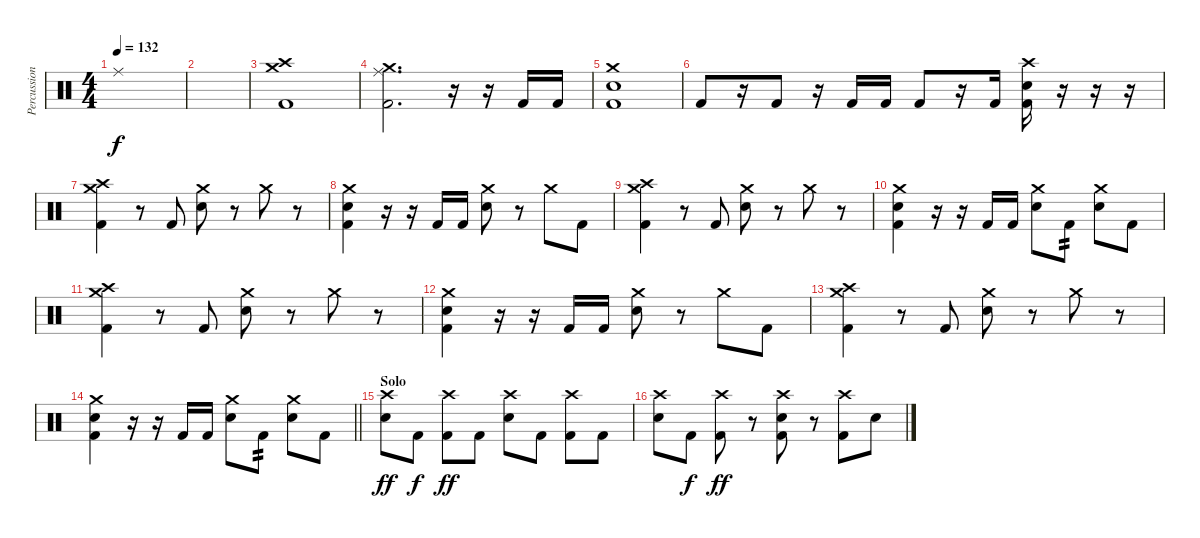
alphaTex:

\track ("Percussion" "Percussion") {instrument percussion}
\staff {score}
\articulation defaults
\ts (4 4)
\tempo 132
\clef neutral
\ks c "Ride (middle)".1{dy f}
|
|
("Crash medium (hit)" "Crash high (hit)" "Kick (hit) 2").1 |
("Ride (middle)" "Crash medium (hit)" "Kick (hit) 2").2{d} r.16 r.16 "Kick (hit) 2".16 "Kick (hit) 2".16 |
("Crash medium (hit)" "Electric Snare (hit)" "Kick (hit) 2").1 |
"Kick (hit) 2".8 r.16 "Kick (hit) 2".8 r.16 "Kick (hit) 2".16 "Kick (hit) 2".16 "Kick (hit) 2".8 r.16 "Kick (hit) 2".16 ("Crash high (hit)" "Electric Snare (hit)" "Kick (hit) 2").16 r.16 r.16 r.16 |
("Crash medium (hit)" "Crash high (hit)" "Kick (hit) 2").4 r.8 "Kick (hit) 2".8 ("Crash medium (hit)" "Electric Snare (hit)").8 r.8 "Crash medium (hit)".8 r.8 |
("Crash medium (hit)" "Electric Snare (hit)" "Kick (hit) 2").4 r.16 r.16 "Kick (hit) 2".16 "Kick (hit) 2".16 ("Crash medium (hit)" "Electric Snare (hit)").8 r.8 "Crash medium (hit)".8 "Kick (hit) 2".8 |
("Crash medium (hit)" "Crash high (hit)" "Kick (hit) 2").4 r.8 "Kick (hit) 2".8 ("Crash medium (hit)" "Electric Snare (hit)").8 r.8 "Crash medium (hit)".8 r.8 |
("Crash medium (hit)" "Electric Snare (hit)" "Kick (hit) 2").4 r.16 r.16 "Kick (hit) 2".16 "Kick (hit) 2".16 ("Crash medium (hit)" "Electric Snare (hit)").8 "Kick (hit) 2".8{tp 2} ("Crash medium (hit)" "Electric Snare (hit)").8 "Kick (hit) 2".8 |
("Crash medium (hit)" "Crash high (hit)" "Kick (hit) 2").4 r.8 "Kick (hit) 2".8 ("Crash medium (hit)" "Electric Snare (hit)").8 r.8 "Crash medium (hit)".8 r.8 |
("Crash medium (hit)" "Electric Snare (hit)" "Kick (hit) 2").4 r.16 r.16 "Kick (hit) 2".16 "Kick (hit) 2".16 ("Crash medium (hit)" "Electric Snare (hit)").8 r.8 "Crash medium (hit)".8 "Kick (hit) 2".8 |
("Crash medium (hit)" "Crash high (hit)" "Kick (hit) 2").4 r.8 "Kick (hit) 2".8 ("Crash medium (hit)" "Electric Snare (hit)").8 r.8 "Crash medium (hit)".8 r.8 |
\barLineRight lightlight
("Crash medium (hit)" "Electric Snare (hit)" "Kick (hit) 2").4 r.16 r.16 "Kick (hit) 2".16 "Kick (hit) 2".16 ("Crash medium (hit)" "Electric Snare (hit)").8 "Kick (hit) 2".8{tp 2} ("Crash medium (hit)" "Electric Snare (hit)").8 "Kick (hit) 2".8 |
\section ("" "Solo")
("Electric Snare (hit)" "Crash high (hit)").8{dy ff} "Kick (hit) 2".8{dy f} ("Kick (hit) 2" "Crash high (hit)").8{dy ff} "Kick (hit) 2".8 ("Electric Snare (hit)" "Crash high (hit)").8 "Kick (hit) 2".8 ("Kick (hit) 2" "Crash high (hit)").8 "Kick (hit) 2".8 |
("Electric Snare (hit)" "Crash high (hit)").8 "Kick (hit) 2".8{dy f} ("Kick (hit) 2" "Crash high (hit)").8{dy ff} r.8 ("Kick (hit) 2" "Electric Snare (hit)" "Crash high (hit)").8 r.8 ("Kick (hit) 2" "Crash high (hit)").8 "Electric Snare (hit)".8
